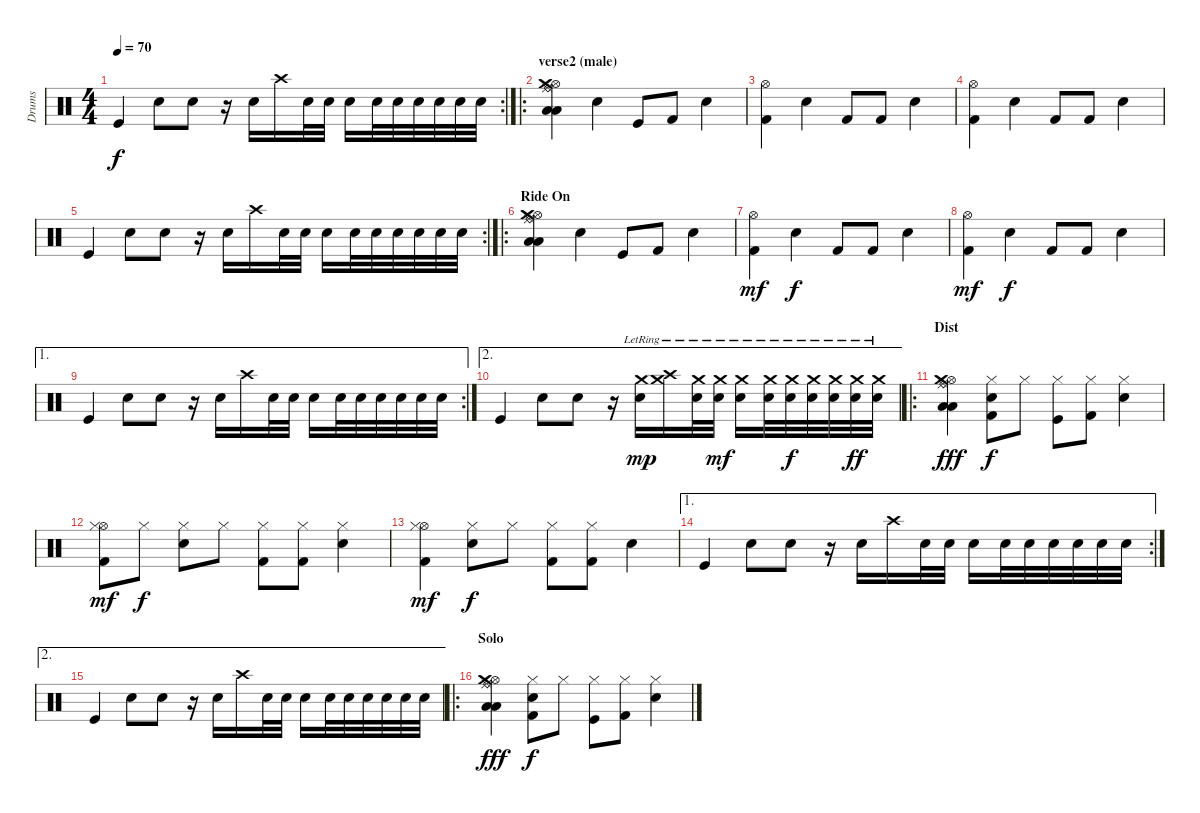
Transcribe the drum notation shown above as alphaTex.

\track ("Drums" "Drums") {instrument percussion}
\staff {score}
\articulation defaults
\rc 2
\ts (4 4)
\tempo 70
\clef neutral
\ks c "Kick (hit)".4{dy f} "Snare (hit) 2".8 "Snare (hit) 2".8
r.16 "Snare (hit) 2".16 "Crash high (hit)".16 "Snare (hit) 2".32 "Snare (hit) 2".32 "Snare (hit) 2".16 "Snare (hit) 2".32 "Snare (hit) 2".32 "Snare (hit) 2".32 "Snare (hit) 2".32 "Snare (hit) 2".32 "Snare (hit) 2".32 |
\ro
\section ("" "verse2 (male)")
("Hi-Hat (open)" "Ride (middle)" "Ride (bell)" "Low Tom (hit)" "Crash medium (hit)" "Low Tom (hit)").4 "Snare (hit) 2".4 "Kick (hit)".8 "Kick (hit) 2".8 "Snare (hit) 2".4 |
("Kick (hit) 2" "Hi-Hat (open)").4 "Snare (hit) 2".4 "Kick (hit) 2".8 "Kick (hit) 2".8 "Snare (hit) 2".4 |
("Kick (hit) 2" "Hi-Hat (open)").4 "Snare (hit) 2".4 "Kick (hit) 2".8 "Kick (hit) 2".8 "Snare (hit) 2".4 |
\rc 2 "Kick (hit)".4 "Snare (hit) 2".8 "Snare (hit) 2".8
r.16 "Snare (hit) 2".16 "Crash high (hit)".16 "Snare (hit) 2".32 "Snare (hit) 2".32 "Snare (hit) 2".16 "Snare (hit) 2".32 "Snare (hit) 2".32 "Snare (hit) 2".32 "Snare (hit) 2".32 "Snare (hit) 2".32 "Snare (hit) 2".32 |
\ro
\section ("" "Ride On")
("Hi-Hat (open)" "Ride (middle)" "Ride (bell)" "Low Tom (hit)" "Crash medium (hit)" "Low Tom (hit)").4 "Snare (hit) 2".4 "Kick (hit)".8 "Kick (hit) 2".8 "Snare (hit) 2".4 |
("Kick (hit) 2" "Hi-Hat (open)").4{dy mf} "Snare (hit) 2".4{dy f} "Kick (hit) 2".8 "Kick (hit) 2".8 "Snare (hit) 2".4 |
("Kick (hit) 2" "Hi-Hat (open)").4{dy mf} "Snare (hit) 2".4{dy f} "Kick (hit) 2".8 "Kick (hit) 2".8 "Snare (hit) 2".4 |
\ae 1
\rc 2 "Kick (hit)".4 "Snare (hit) 2".8 "Snare (hit) 2".8
r.16 "Snare (hit) 2".16 "Crash high (hit)".16 "Snare (hit) 2".32 "Snare (hit) 2".32 "Snare (hit) 2".16 "Snare (hit) 2".32 "Snare (hit) 2".32 "Snare (hit) 2".32 "Snare (hit) 2".32 "Snare (hit) 2".32 "Snare (hit) 2".32 |
\ae 2 "Kick (hit)".4 "Snare (hit) 2".8 "Snare (hit) 2".8
r.16 ("Snare (hit) 2" "Crash medium (hit)"{lr}).16{dy mp} ("Crash high (hit)" "Crash medium (hit)"{lr}).16 ("Snare (hit) 2" "Crash medium (hit)"{lr}).32 ("Snare (hit) 2" "Crash medium (hit)"{lr}).32{dy mf} ("Snare (hit) 2" "Crash medium (hit)"{lr}).16 ("Snare (hit) 2" "Crash medium (hit)"{lr}).32 ("Snare (hit) 2" "Crash medium (hit)"{lr}).32{dy f} ("Snare (hit) 2" "Crash medium (hit)"{lr}).32 ("Snare (hit) 2" "Crash medium (hit)"{lr}).32 ("Snare (hit) 2" "Crash medium (hit)"{lr}).32{dy ff} ("Snare (hit) 2" "Crash medium (hit)"{lr}).32 |
\ro
\section ("" "Dist")
("Hi-Hat (open)" "Ride (middle)" "Ride (bell)" "Low Tom (hit)" "Crash medium (hit)" "Low Tom (hit)").4{dy fff} ("Kick (hit) 2" "Snare (hit) 2" "Hi-Hat (closed)").8{dy f} "Hi-Hat (closed)".8 ("Kick (hit)" "Hi-Hat (closed)").8 ("Kick (hit) 2" "Hi-Hat (closed)").8 ("Snare (hit) 2" "Hi-Hat (closed)").4 |
("Kick (hit) 2" "Hi-Hat (open)" "Hi-Hat (closed)").8{dy mf} "Hi-Hat (closed)".8{dy f} ("Snare (hit) 2" "Hi-Hat (closed)").8 "Hi-Hat (closed)".8 ("Kick (hit) 2" "Hi-Hat (closed)").8 ("Kick (hit) 2" "Hi-Hat (closed)").8 ("Snare (hit) 2" "Hi-Hat (closed)").4 |
("Kick (hit) 2" "Hi-Hat (open)" "Hi-Hat (closed)").4{dy mf} ("Snare (hit) 2" "Hi-Hat (closed)").8{dy f} "Hi-Hat (closed)".8 ("Kick (hit) 2" "Hi-Hat (closed)").8 ("Kick (hit) 2" "Hi-Hat (closed)").8 "Snare (hit) 2".4 |
\ae 1
\rc 2 "Kick (hit)".4 "Snare (hit) 2".8 "Snare (hit) 2".8
r.16 "Snare (hit) 2".16 "Crash high (hit)".16 "Snare (hit) 2".32 "Snare (hit) 2".32 "Snare (hit) 2".16 "Snare (hit) 2".32 "Snare (hit) 2".32 "Snare (hit) 2".32 "Snare (hit) 2".32 "Snare (hit) 2".32 "Snare (hit) 2".32 |
\ae 2 "Kick (hit)".4 "Snare (hit) 2".8 "Snare (hit) 2".8
r.16 "Snare (hit) 2".16 "Crash high (hit)".16 "Snare (hit) 2".32 "Snare (hit) 2".32 "Snare (hit) 2".16 "Snare (hit) 2".32 "Snare (hit) 2".32 "Snare (hit) 2".32 "Snare (hit) 2".32 "Snare (hit) 2".32 "Snare (hit) 2".32 |
\ro
\section ("" "Solo")
("Hi-Hat (open)" "Ride (middle)" "Ride (bell)" "Low Tom (hit)" "Crash medium (hit)" "Low Tom (hit)").4{dy fff} ("Kick (hit) 2" "Snare (hit) 2" "Hi-Hat (closed)").8{dy f} "Hi-Hat (closed)".8 ("Kick (hit)" "Hi-Hat (closed)").8 ("Kick (hit) 2" "Hi-Hat (closed)").8 ("Snare (hit) 2" "Hi-Hat (closed)").4
